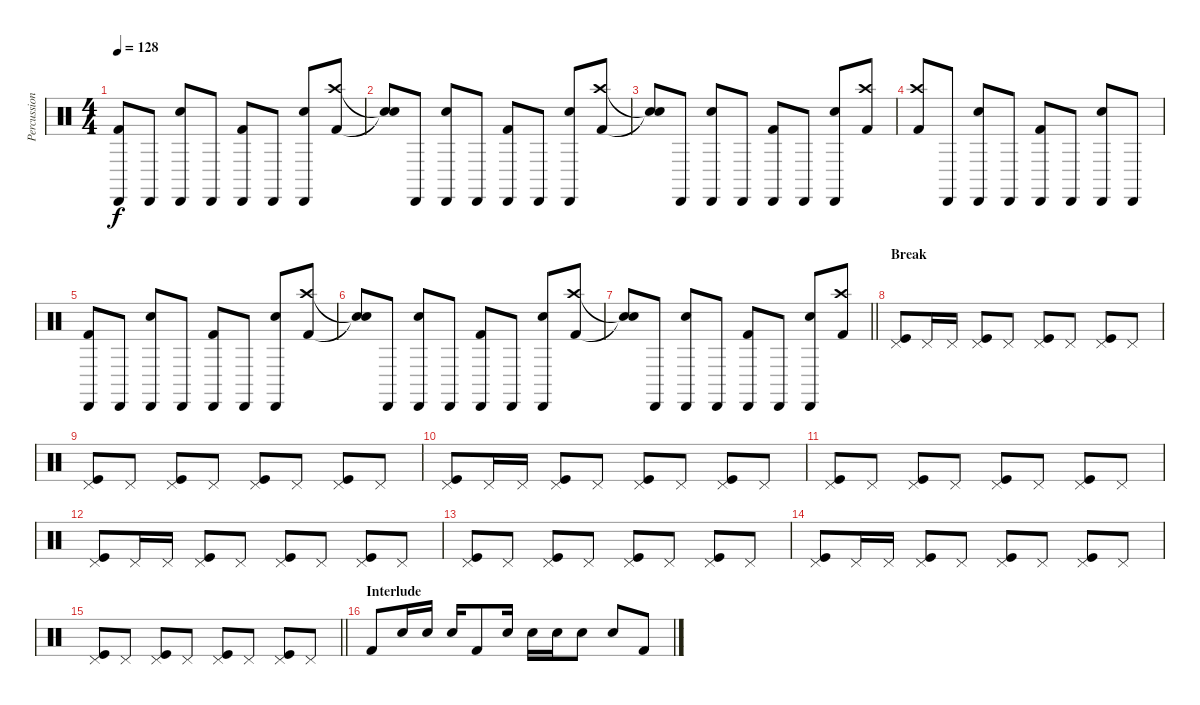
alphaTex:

\track ("Percussion" "Percussion") {instrument percussion}
\staff {score}
\articulation defaults
\ts (4 4)
\tempo 128
\clef neutral
\ks c
("Kick (hit) 2" "Cabasa (hit)").8{dy f} "Cabasa (hit)".8 ("Snare (hit) 2" "Cabasa (hit)").8 "Cabasa (hit)".8 ("Kick (hit) 2" "Cabasa (hit)").8 "Cabasa (hit)".8 ("Snare (hit) 2" "Cabasa (hit)").8 ("Kick (hit) 2" "Crash high (hit)").8 |
("Snare (hit)"{t} "Snare (hit)"{t}).8 "Cabasa (hit)".8 ("Snare (hit) 2" "Cabasa (hit)").8 "Cabasa (hit)".8 ("Kick (hit) 2" "Cabasa (hit)").8 "Cabasa (hit)".8 ("Snare (hit) 2" "Cabasa (hit)").8 ("Kick (hit) 2" "Crash high (hit)").8 |
("Snare (hit)"{t} "Snare (hit)"{t}).8 "Cabasa (hit)".8 ("Snare (hit) 2" "Cabasa (hit)").8 "Cabasa (hit)".8 ("Kick (hit) 2" "Cabasa (hit)").8 "Cabasa (hit)".8 ("Snare (hit) 2" "Cabasa (hit)").8 ("Kick (hit) 2" "Crash high (hit)").8 |
("Kick (hit) 2" "Crash high (hit)").8 "Cabasa (hit)".8 ("Snare (hit) 2" "Cabasa (hit)").8 "Cabasa (hit)".8 ("Kick (hit) 2" "Cabasa (hit)").8 "Cabasa (hit)".8 ("Snare (hit) 2" "Cabasa (hit)").8 "Cabasa (hit)".8 |
("Kick (hit) 2" "Cabasa (hit)").8 "Cabasa (hit)".8 ("Snare (hit) 2" "Cabasa (hit)").8 "Cabasa (hit)".8 ("Kick (hit) 2" "Cabasa (hit)").8 "Cabasa (hit)".8 ("Snare (hit) 2" "Cabasa (hit)").8 ("Kick (hit) 2" "Crash high (hit)").8 |
("Snare (hit)"{t} "Snare (hit)"{t}).8 "Cabasa (hit)".8 ("Snare (hit) 2" "Cabasa (hit)").8 "Cabasa (hit)".8 ("Kick (hit) 2" "Cabasa (hit)").8 "Cabasa (hit)".8 ("Snare (hit) 2" "Cabasa (hit)").8 ("Kick (hit) 2" "Crash high (hit)").8 |
\barLineRight lightlight
("Snare (hit)"{t} "Snare (hit)"{t}).8 "Cabasa (hit)".8 ("Snare (hit) 2" "Cabasa (hit)").8 "Cabasa (hit)".8 ("Kick (hit) 2" "Cabasa (hit)").8 "Cabasa (hit)".8 ("Snare (hit) 2" "Cabasa (hit)").8 ("Kick (hit) 2" "Crash high (hit)").8 |
\section ("" "Break")
("Kick (hit)" "Pedal Hi-Hat (hit)").8 "Pedal Hi-Hat (hit)".16 "Pedal Hi-Hat (hit)".16 ("Kick (hit)" "Pedal Hi-Hat (hit)").8 "Pedal Hi-Hat (hit)".8 ("Kick (hit)" "Pedal Hi-Hat (hit)").8 "Pedal Hi-Hat (hit)".8 ("Kick (hit)" "Pedal Hi-Hat (hit)").8 "Pedal Hi-Hat (hit)".8 |
("Kick (hit)" "Pedal Hi-Hat (hit)").8 "Pedal Hi-Hat (hit)".8 ("Kick (hit)" "Pedal Hi-Hat (hit)").8 "Pedal Hi-Hat (hit)".8 ("Kick (hit)" "Pedal Hi-Hat (hit)").8 "Pedal Hi-Hat (hit)".8 ("Kick (hit)" "Pedal Hi-Hat (hit)").8 "Pedal Hi-Hat (hit)".8 |
("Kick (hit)" "Pedal Hi-Hat (hit)").8 "Pedal Hi-Hat (hit)".16 "Pedal Hi-Hat (hit)".16 ("Kick (hit)" "Pedal Hi-Hat (hit)").8 "Pedal Hi-Hat (hit)".8 ("Kick (hit)" "Pedal Hi-Hat (hit)").8 "Pedal Hi-Hat (hit)".8 ("Kick (hit)" "Pedal Hi-Hat (hit)").8 "Pedal Hi-Hat (hit)".8 |
("Kick (hit)" "Pedal Hi-Hat (hit)").8 "Pedal Hi-Hat (hit)".8 ("Kick (hit)" "Pedal Hi-Hat (hit)").8 "Pedal Hi-Hat (hit)".8 ("Kick (hit)" "Pedal Hi-Hat (hit)").8 "Pedal Hi-Hat (hit)".8 ("Kick (hit)" "Pedal Hi-Hat (hit)").8 "Pedal Hi-Hat (hit)".8 |
("Kick (hit)" "Pedal Hi-Hat (hit)").8 "Pedal Hi-Hat (hit)".16 "Pedal Hi-Hat (hit)".16 ("Kick (hit)" "Pedal Hi-Hat (hit)").8 "Pedal Hi-Hat (hit)".8 ("Kick (hit)" "Pedal Hi-Hat (hit)").8 "Pedal Hi-Hat (hit)".8 ("Kick (hit)" "Pedal Hi-Hat (hit)").8 "Pedal Hi-Hat (hit)".8 |
("Kick (hit)" "Pedal Hi-Hat (hit)").8 "Pedal Hi-Hat (hit)".8 ("Kick (hit)" "Pedal Hi-Hat (hit)").8 "Pedal Hi-Hat (hit)".8 ("Kick (hit)" "Pedal Hi-Hat (hit)").8 "Pedal Hi-Hat (hit)".8 ("Kick (hit)" "Pedal Hi-Hat (hit)").8 "Pedal Hi-Hat (hit)".8 |
("Kick (hit)" "Pedal Hi-Hat (hit)").8 "Pedal Hi-Hat (hit)".16 "Pedal Hi-Hat (hit)".16 ("Kick (hit)" "Pedal Hi-Hat (hit)").8 "Pedal Hi-Hat (hit)".8 ("Kick (hit)" "Pedal Hi-Hat (hit)").8 "Pedal Hi-Hat (hit)".8 ("Kick (hit)" "Pedal Hi-Hat (hit)").8 "Pedal Hi-Hat (hit)".8 |
\barLineRight lightlight
("Kick (hit)" "Pedal Hi-Hat (hit)").8 "Pedal Hi-Hat (hit)".8 ("Kick (hit)" "Pedal Hi-Hat (hit)").8 "Pedal Hi-Hat (hit)".8 ("Kick (hit)" "Pedal Hi-Hat (hit)").8 "Pedal Hi-Hat (hit)".8 ("Kick (hit)" "Pedal Hi-Hat (hit)").8 "Pedal Hi-Hat (hit)".8 |
\section ("" "Interlude")
"Kick (hit) 2".8 "Snare (hit) 2".16 "Snare (hit) 2".16 "Snare (hit) 2".16 "Kick (hit) 2".8 "Snare (hit) 2".16 "Snare (hit) 2".16 "Snare (hit) 2".16 "Snare (hit) 2".8 "Snare (hit) 2".8 "Kick (hit) 2".8
